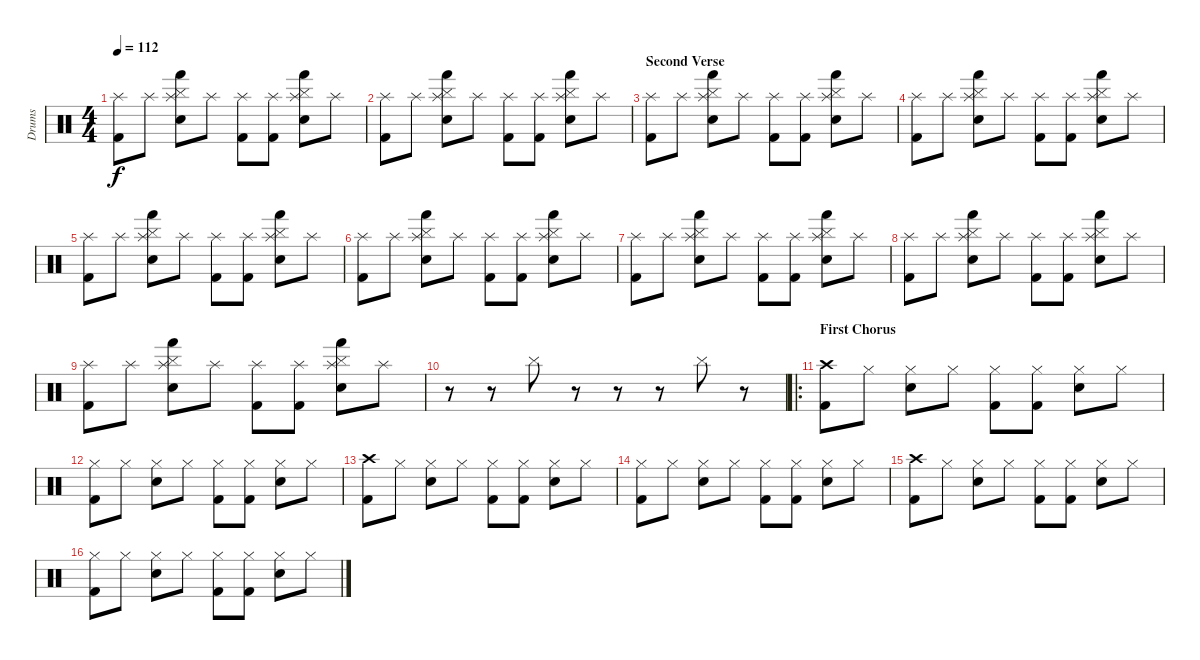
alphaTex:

\track ("Drums" "Drums") {instrument percussion}
\staff {score}
\articulation defaults
\ts (4 4)
\tempo 112
\clef neutral
\ks c
("Splash (hit)" "Kick (hit) 2").8{dy f} "Splash (hit)".8 ("Splash (hit)" "Hand (hit)" "Snare (hit) 2" "Cymbal (hit)").8 "Splash (hit)".8 ("Splash (hit)" "Kick (hit) 2").8 ("Splash (hit)" "Kick (hit) 2").8 ("Splash (hit)" "Cymbal (hit)" "Snare (hit) 2" "Hand (hit)").8 "Splash (hit)".8 |
("Splash (hit)" "Kick (hit) 2").8 "Splash (hit)".8 ("Splash (hit)" "Hand (hit)" "Snare (hit) 2" "Cymbal (hit)").8 "Splash (hit)".8 ("Splash (hit)" "Kick (hit) 2").8 ("Splash (hit)" "Kick (hit) 2").8 ("Splash (hit)" "Cymbal (hit)" "Snare (hit) 2" "Hand (hit)").8 "Splash (hit)".8 |
\section ("" "Second Verse")
("Splash (hit)" "Kick (hit) 2").8 "Splash (hit)".8 ("Splash (hit)" "Hand (hit)" "Snare (hit) 2" "Cymbal (hit)").8 "Splash (hit)".8 ("Splash (hit)" "Kick (hit) 2").8 ("Splash (hit)" "Kick (hit) 2").8 ("Splash (hit)" "Cymbal (hit)" "Snare (hit) 2" "Hand (hit)").8 "Splash (hit)".8 |
("Splash (hit)" "Kick (hit) 2").8 "Splash (hit)".8 ("Splash (hit)" "Hand (hit)" "Snare (hit) 2" "Cymbal (hit)").8 "Splash (hit)".8 ("Splash (hit)" "Kick (hit) 2").8 ("Splash (hit)" "Kick (hit) 2").8 ("Splash (hit)" "Cymbal (hit)" "Snare (hit) 2" "Hand (hit)").8 "Splash (hit)".8 |
("Splash (hit)" "Kick (hit) 2").8 "Splash (hit)".8 ("Splash (hit)" "Hand (hit)" "Snare (hit) 2" "Cymbal (hit)").8 "Splash (hit)".8 ("Splash (hit)" "Kick (hit) 2").8 ("Splash (hit)" "Kick (hit) 2").8 ("Splash (hit)" "Cymbal (hit)" "Snare (hit) 2" "Hand (hit)").8 "Splash (hit)".8 |
("Splash (hit)" "Kick (hit) 2").8 "Splash (hit)".8 ("Splash (hit)" "Hand (hit)" "Snare (hit) 2" "Cymbal (hit)").8 "Splash (hit)".8 ("Splash (hit)" "Kick (hit) 2").8 ("Splash (hit)" "Kick (hit) 2").8 ("Splash (hit)" "Cymbal (hit)" "Snare (hit) 2" "Hand (hit)").8 "Splash (hit)".8 |
("Splash (hit)" "Kick (hit) 2").8 "Splash (hit)".8 ("Splash (hit)" "Hand (hit)" "Snare (hit) 2" "Cymbal (hit)").8 "Splash (hit)".8 ("Splash (hit)" "Kick (hit) 2").8 ("Splash (hit)" "Kick (hit) 2").8 ("Splash (hit)" "Cymbal (hit)" "Snare (hit) 2" "Hand (hit)").8 "Splash (hit)".8 |
("Splash (hit)" "Kick (hit) 2").8 "Splash (hit)".8 ("Splash (hit)" "Hand (hit)" "Snare (hit) 2" "Cymbal (hit)").8 "Splash (hit)".8 ("Splash (hit)" "Kick (hit) 2").8 ("Splash (hit)" "Kick (hit) 2").8 ("Splash (hit)" "Cymbal (hit)" "Snare (hit) 2" "Hand (hit)").8 "Splash (hit)".8 |
("Splash (hit)" "Kick (hit) 2").8 "Splash (hit)".8 ("Splash (hit)" "Hand (hit)" "Snare (hit) 2" "Cymbal (hit)").8 "Splash (hit)".8 ("Splash (hit)" "Kick (hit) 2").8 ("Splash (hit)" "Kick (hit) 2").8 ("Splash (hit)" "Cymbal (hit)" "Snare (hit) 2" "Hand (hit)").8 "Splash (hit)".8 |
r.8 r.8 "Cymbal (hit)".8 r.8 r.8 r.8 "Cymbal (hit)".8 r.8 |
\ro
\section ("" "First Chorus")
("Crash high (hit)" "Kick (hit) 2").8 "Hi-Hat (closed)".8 ("Hi-Hat (closed)" "Electric Snare (hit)").8 "Hi-Hat (closed)".8 ("Hi-Hat (closed)" "Kick (hit) 2").8 ("Hi-Hat (closed)" "Kick (hit) 2").8 ("Hi-Hat (closed)" "Electric Snare (hit)").8 "Hi-Hat (closed)".8 |
("Hi-Hat (closed)" "Kick (hit) 2").8 "Hi-Hat (closed)".8 ("Hi-Hat (closed)" "Electric Snare (hit)").8 "Hi-Hat (closed)".8 ("Hi-Hat (closed)" "Kick (hit) 2").8 ("Hi-Hat (closed)" "Kick (hit) 2").8 ("Hi-Hat (closed)" "Electric Snare (hit)").8 "Hi-Hat (closed)".8 |
("Crash high (hit)" "Kick (hit) 2").8 "Hi-Hat (closed)".8 ("Hi-Hat (closed)" "Electric Snare (hit)").8 "Hi-Hat (closed)".8 ("Hi-Hat (closed)" "Kick (hit) 2").8 ("Hi-Hat (closed)" "Kick (hit) 2").8 ("Hi-Hat (closed)" "Electric Snare (hit)").8 "Hi-Hat (closed)".8 |
("Hi-Hat (closed)" "Kick (hit) 2").8 "Hi-Hat (closed)".8 ("Hi-Hat (closed)" "Electric Snare (hit)").8 "Hi-Hat (closed)".8 ("Hi-Hat (closed)" "Kick (hit) 2").8 ("Hi-Hat (closed)" "Kick (hit) 2").8 ("Hi-Hat (closed)" "Electric Snare (hit)").8 "Hi-Hat (closed)".8 |
("Crash high (hit)" "Kick (hit) 2").8 "Hi-Hat (closed)".8 ("Hi-Hat (closed)" "Electric Snare (hit)").8 "Hi-Hat (closed)".8 ("Hi-Hat (closed)" "Kick (hit) 2").8 ("Hi-Hat (closed)" "Kick (hit) 2").8 ("Hi-Hat (closed)" "Electric Snare (hit)").8 "Hi-Hat (closed)".8 |
("Hi-Hat (closed)" "Kick (hit) 2").8 "Hi-Hat (closed)".8 ("Hi-Hat (closed)" "Electric Snare (hit)").8 "Hi-Hat (closed)".8 ("Hi-Hat (closed)" "Kick (hit) 2").8 ("Hi-Hat (closed)" "Kick (hit) 2").8 ("Hi-Hat (closed)" "Electric Snare (hit)").8 "Hi-Hat (closed)".8
